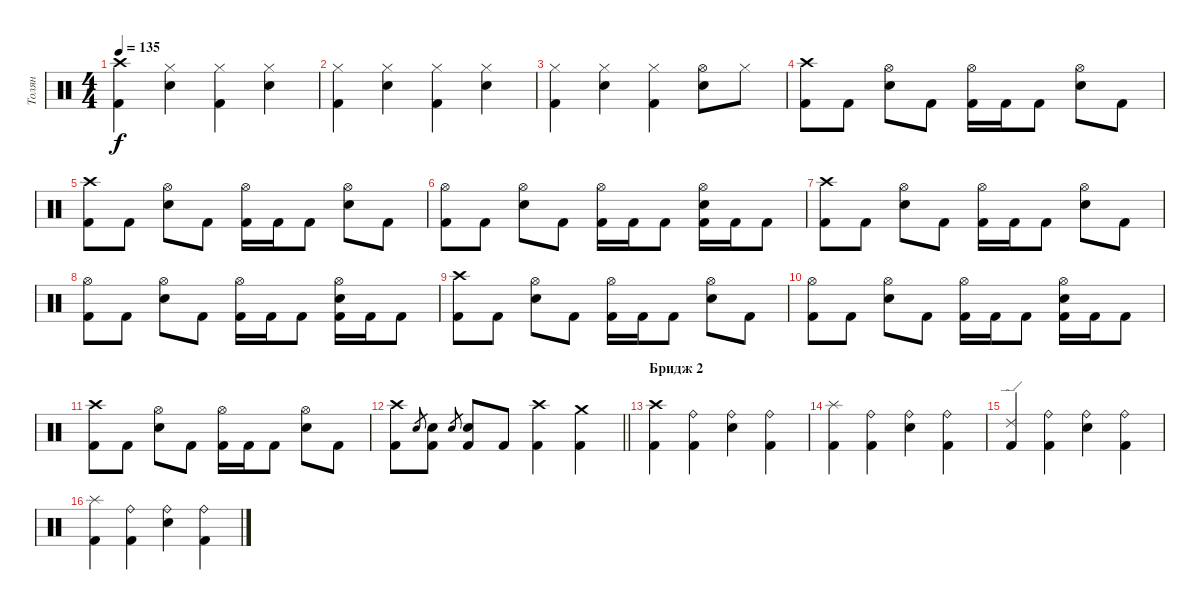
\track ("Толян" "Толян") {instrument percussion}
\staff {score}
\articulation defaults
\ts (4 4)
\tempo 135
\clef neutral
\ks c
("Crash high (hit)" "Kick (hit) 2").4{dy f} ("Hi-Hat (closed)" "Electric Snare (hit)").4 ("Hi-Hat (closed)" "Kick (hit) 2").4 ("Hi-Hat (closed)" "Electric Snare (hit)").4 |
("Hi-Hat (closed)" "Kick (hit) 2").4 ("Hi-Hat (closed)" "Electric Snare (hit)").4 ("Hi-Hat (closed)" "Kick (hit) 2").4 ("Hi-Hat (closed)" "Electric Snare (hit)").4 |
("Hi-Hat (closed)" "Kick (hit) 2").4 ("Hi-Hat (closed)" "Electric Snare (hit)").4 ("Hi-Hat (closed)" "Kick (hit) 2").4 ("Hi-Hat (open)" "Electric Snare (hit)").8 "Hi-Hat (closed)".8 |
("Crash high (hit)" "Kick (hit) 2").8 "Kick (hit) 2".8 ("Hi-Hat (open)" "Electric Snare (hit)").8 "Kick (hit) 2".8 ("Hi-Hat (open)" "Kick (hit) 2").16 "Kick (hit) 2".16 "Kick (hit) 2".8 ("Hi-Hat (open)" "Electric Snare (hit)").8 "Kick (hit) 2".8 |
("Crash high (hit)" "Kick (hit) 2").8 "Kick (hit) 2".8 ("Hi-Hat (open)" "Electric Snare (hit)").8 "Kick (hit) 2".8 ("Hi-Hat (open)" "Kick (hit) 2").16 "Kick (hit) 2".16 "Kick (hit) 2".8 ("Hi-Hat (open)" "Electric Snare (hit)").8 "Kick (hit) 2".8 |
("Hi-Hat (open)" "Kick (hit) 2").8 "Kick (hit) 2".8 ("Hi-Hat (open)" "Electric Snare (hit)").8 "Kick (hit) 2".8 ("Hi-Hat (open)" "Kick (hit) 2").16 "Kick (hit) 2".16 "Kick (hit) 2".8 ("Hi-Hat (open)" "Electric Snare (hit)" "Kick (hit) 2").16 "Kick (hit) 2".16 "Kick (hit) 2".8 |
("Crash high (hit)" "Kick (hit) 2").8 "Kick (hit) 2".8 ("Hi-Hat (open)" "Electric Snare (hit)").8 "Kick (hit) 2".8 ("Hi-Hat (open)" "Kick (hit) 2").16 "Kick (hit) 2".16 "Kick (hit) 2".8 ("Hi-Hat (open)" "Electric Snare (hit)").8 "Kick (hit) 2".8 |
("Hi-Hat (open)" "Kick (hit) 2").8 "Kick (hit) 2".8 ("Hi-Hat (open)" "Electric Snare (hit)").8 "Kick (hit) 2".8 ("Hi-Hat (open)" "Kick (hit) 2").16 "Kick (hit) 2".16 "Kick (hit) 2".8 ("Hi-Hat (open)" "Electric Snare (hit)" "Kick (hit) 2").16 "Kick (hit) 2".16 "Kick (hit) 2".8 |
("Crash high (hit)" "Kick (hit) 2").8 "Kick (hit) 2".8 ("Hi-Hat (open)" "Electric Snare (hit)").8 "Kick (hit) 2".8 ("Hi-Hat (open)" "Kick (hit) 2").16 "Kick (hit) 2".16 "Kick (hit) 2".8 ("Hi-Hat (open)" "Electric Snare (hit)").8 "Kick (hit) 2".8 |
("Hi-Hat (open)" "Kick (hit) 2").8 "Kick (hit) 2".8 ("Hi-Hat (open)" "Electric Snare (hit)").8 "Kick (hit) 2".8 ("Hi-Hat (open)" "Kick (hit) 2").16 "Kick (hit) 2".16 "Kick (hit) 2".8 ("Hi-Hat (open)" "Electric Snare (hit)" "Kick (hit) 2").16 "Kick (hit) 2".16 "Kick (hit) 2".8 |
("Crash high (hit)" "Kick (hit) 2").8 "Kick (hit) 2".8 ("Hi-Hat (open)" "Electric Snare (hit)").8 "Kick (hit) 2".8 ("Hi-Hat (open)" "Kick (hit) 2").16 "Kick (hit) 2".16 "Kick (hit) 2".8 ("Hi-Hat (open)" "Electric Snare (hit)").8 "Kick (hit) 2".8 |
\barLineRight lightlight
("Crash high (hit)" "Kick (hit) 2").8 "Electric Snare (hit)".8{gr} ("Electric Snare (hit)" "Kick (hit) 2").8 "Electric Snare (hit)".8{gr} ("Electric Snare (hit)" "Kick (hit) 2").8 "Kick (hit) 2".8 ("Crash high (hit)" "Kick (hit) 2").4 ("Crash medium (hit)" "Kick (hit) 2").4 |
\section ("" "Бридж 2")
("Crash high (hit)" "Kick (hit) 2").4 ("Ride (bell)" "Kick (hit) 2").4 ("Ride (bell)" "Electric Snare (hit)").4 ("Ride (bell)" "Kick (hit) 2").4 |
("Splash (hit)" "Kick (hit) 2").4 ("Ride (bell)" "Kick (hit) 2").4 ("Ride (bell)" "Electric Snare (hit)").4 ("Ride (bell)" "Kick (hit) 2").4 |
("Ride (edge) 2" "Kick (hit) 2").4 ("Ride (bell)" "Kick (hit) 2").4 ("Ride (bell)" "Electric Snare (hit)").4 ("Ride (bell)" "Kick (hit) 2").4 |
("Splash (hit)" "Kick (hit) 2").4 ("Ride (bell)" "Kick (hit) 2").4 ("Ride (bell)" "Electric Snare (hit)").4 ("Ride (bell)" "Kick (hit) 2").4
